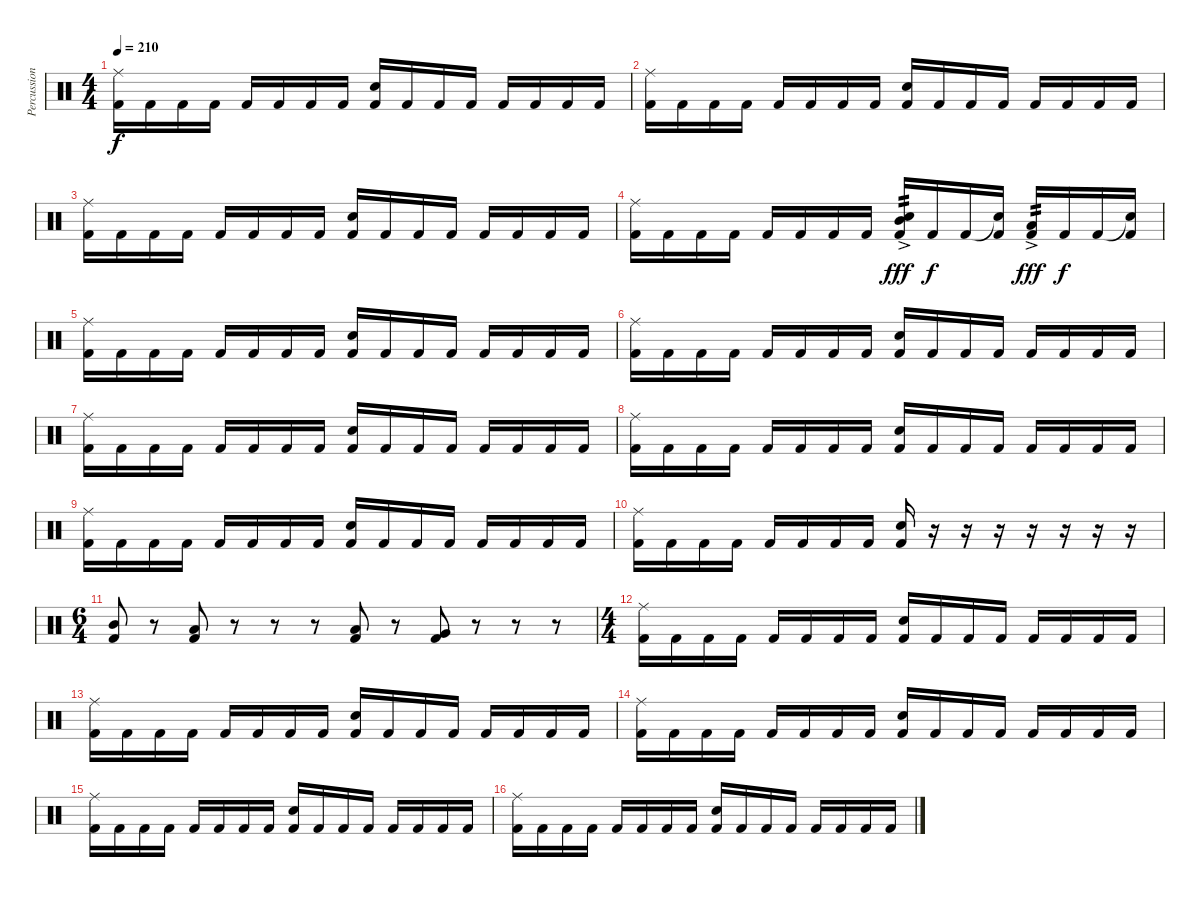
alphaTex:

\track ("Percussions" "Percussion") {instrument percussion}
\staff {score}
\articulation defaults
\ts (4 4)
\tempo 210
\clef neutral
\ks c
("Ride (middle)" "Kick (hit) 2").16{dy f} "Kick (hit) 2".16 "Kick (hit) 2".16 "Kick (hit) 2".16 "Kick (hit) 2".16 "Kick (hit) 2".16 "Kick (hit) 2".16 "Kick (hit) 2".16 ("Snare (hit) 2" "Kick (hit) 2").16 "Kick (hit) 2".16 "Kick (hit) 2".16 "Kick (hit) 2".16 "Kick (hit) 2".16 "Kick (hit) 2".16 "Kick (hit) 2".16 "Kick (hit) 2".16 |
("Ride (middle)" "Kick (hit) 2").16 "Kick (hit) 2".16 "Kick (hit) 2".16 "Kick (hit) 2".16 "Kick (hit) 2".16 "Kick (hit) 2".16 "Kick (hit) 2".16 "Kick (hit) 2".16 ("Snare (hit) 2" "Kick (hit) 2").16 "Kick (hit) 2".16 "Kick (hit) 2".16 "Kick (hit) 2".16 "Kick (hit) 2".16 "Kick (hit) 2".16 "Kick (hit) 2".16 "Kick (hit) 2".16 |
("Ride (middle)" "Kick (hit) 2").16 "Kick (hit) 2".16 "Kick (hit) 2".16 "Kick (hit) 2".16 "Kick (hit) 2".16 "Kick (hit) 2".16 "Kick (hit) 2".16 "Kick (hit) 2".16 ("Snare (hit) 2" "Kick (hit) 2").16 "Kick (hit) 2".16 "Kick (hit) 2".16 "Kick (hit) 2".16 "Kick (hit) 2".16 "Kick (hit) 2".16 "Kick (hit) 2".16 "Kick (hit) 2".16 |
("Ride (middle)" "Kick (hit) 2").16 "Kick (hit) 2".16 "Kick (hit) 2".16 "Kick (hit) 2".16 "Kick (hit) 2".16 "Kick (hit) 2".16 "Kick (hit) 2".16 "Kick (hit) 2".16 ("Mid Tom (hit)"{ac} "Snare (hit) 2" "Kick (hit) 2").16{tp 2 dy fff} "Kick (hit) 2".16{dy f} "Kick (hit) 2".16 ("Snare (hit)"{t} "Kick (hit) 2").16 ("Low Tom (hit)"{ac} "Kick (hit) 2").16{tp 2 dy fff} "Kick (hit) 2".16{dy f} "Kick (hit) 2".16 ("Snare (hit)"{t} "Kick (hit) 2").16 |
("Ride (middle)" "Kick (hit) 2").16 "Kick (hit) 2".16 "Kick (hit) 2".16 "Kick (hit) 2".16 "Kick (hit) 2".16 "Kick (hit) 2".16 "Kick (hit) 2".16 "Kick (hit) 2".16 ("Snare (hit) 2" "Kick (hit) 2").16 "Kick (hit) 2".16 "Kick (hit) 2".16 "Kick (hit) 2".16 "Kick (hit) 2".16 "Kick (hit) 2".16 "Kick (hit) 2".16 "Kick (hit) 2".16 |
("Ride (middle)" "Kick (hit) 2").16 "Kick (hit) 2".16 "Kick (hit) 2".16 "Kick (hit) 2".16 "Kick (hit) 2".16 "Kick (hit) 2".16 "Kick (hit) 2".16 "Kick (hit) 2".16 ("Snare (hit) 2" "Kick (hit) 2").16 "Kick (hit) 2".16 "Kick (hit) 2".16 "Kick (hit) 2".16 "Kick (hit) 2".16 "Kick (hit) 2".16 "Kick (hit) 2".16 "Kick (hit) 2".16 |
("Ride (middle)" "Kick (hit) 2").16 "Kick (hit) 2".16 "Kick (hit) 2".16 "Kick (hit) 2".16 "Kick (hit) 2".16 "Kick (hit) 2".16 "Kick (hit) 2".16 "Kick (hit) 2".16 ("Snare (hit) 2" "Kick (hit) 2").16 "Kick (hit) 2".16 "Kick (hit) 2".16 "Kick (hit) 2".16 "Kick (hit) 2".16 "Kick (hit) 2".16 "Kick (hit) 2".16 "Kick (hit) 2".16 |
("Ride (middle)" "Kick (hit) 2").16 "Kick (hit) 2".16 "Kick (hit) 2".16 "Kick (hit) 2".16 "Kick (hit) 2".16 "Kick (hit) 2".16 "Kick (hit) 2".16 "Kick (hit) 2".16 ("Snare (hit) 2" "Kick (hit) 2").16 "Kick (hit) 2".16 "Kick (hit) 2".16 "Kick (hit) 2".16 "Kick (hit) 2".16 "Kick (hit) 2".16 "Kick (hit) 2".16 "Kick (hit) 2".16 |
("Ride (middle)" "Kick (hit) 2").16 "Kick (hit) 2".16 "Kick (hit) 2".16 "Kick (hit) 2".16 "Kick (hit) 2".16 "Kick (hit) 2".16 "Kick (hit) 2".16 "Kick (hit) 2".16 ("Snare (hit) 2" "Kick (hit) 2").16 "Kick (hit) 2".16 "Kick (hit) 2".16 "Kick (hit) 2".16 "Kick (hit) 2".16 "Kick (hit) 2".16 "Kick (hit) 2".16 "Kick (hit) 2".16 |
("Ride (middle)" "Kick (hit) 2").16 "Kick (hit) 2".16 "Kick (hit) 2".16 "Kick (hit) 2".16 "Kick (hit) 2".16 "Kick (hit) 2".16 "Kick (hit) 2".16 "Kick (hit) 2".16 ("Snare (hit) 2" "Kick (hit) 2").16 r.16 r.16 r.16 r.16 r.16 r.16 r.16 |
\ts (6 4)
("Mid Tom (hit)" "Kick (hit) 2").8 r.8 ("Low Tom (hit)" "Kick (hit) 2").8 r.8 r.8 r.8 ("Low Tom (hit)" "Kick (hit) 2").8 r.8 ("Very Low Tom (hit)" "Kick (hit) 2").8 r.8 r.8 r.8 |
\ts (4 4)
("Ride (middle)" "Kick (hit) 2").16 "Kick (hit) 2".16 "Kick (hit) 2".16 "Kick (hit) 2".16 "Kick (hit) 2".16 "Kick (hit) 2".16 "Kick (hit) 2".16 "Kick (hit) 2".16 ("Snare (hit) 2" "Kick (hit) 2").16 "Kick (hit) 2".16 "Kick (hit) 2".16 "Kick (hit) 2".16 "Kick (hit) 2".16 "Kick (hit) 2".16 "Kick (hit) 2".16 "Kick (hit) 2".16 |
("Ride (middle)" "Kick (hit) 2").16 "Kick (hit) 2".16 "Kick (hit) 2".16 "Kick (hit) 2".16 "Kick (hit) 2".16 "Kick (hit) 2".16 "Kick (hit) 2".16 "Kick (hit) 2".16 ("Snare (hit) 2" "Kick (hit) 2").16 "Kick (hit) 2".16 "Kick (hit) 2".16 "Kick (hit) 2".16 "Kick (hit) 2".16 "Kick (hit) 2".16 "Kick (hit) 2".16 "Kick (hit) 2".16 |
("Ride (middle)" "Kick (hit) 2").16 "Kick (hit) 2".16 "Kick (hit) 2".16 "Kick (hit) 2".16 "Kick (hit) 2".16 "Kick (hit) 2".16 "Kick (hit) 2".16 "Kick (hit) 2".16 ("Snare (hit) 2" "Kick (hit) 2").16 "Kick (hit) 2".16 "Kick (hit) 2".16 "Kick (hit) 2".16 "Kick (hit) 2".16 "Kick (hit) 2".16 "Kick (hit) 2".16 "Kick (hit) 2".16 |
("Ride (middle)" "Kick (hit) 2").16 "Kick (hit) 2".16 "Kick (hit) 2".16 "Kick (hit) 2".16 "Kick (hit) 2".16 "Kick (hit) 2".16 "Kick (hit) 2".16 "Kick (hit) 2".16 ("Snare (hit) 2" "Kick (hit) 2").16 "Kick (hit) 2".16 "Kick (hit) 2".16 "Kick (hit) 2".16 "Kick (hit) 2".16 "Kick (hit) 2".16 "Kick (hit) 2".16 "Kick (hit) 2".16 |
("Ride (middle)" "Kick (hit) 2").16 "Kick (hit) 2".16 "Kick (hit) 2".16 "Kick (hit) 2".16 "Kick (hit) 2".16 "Kick (hit) 2".16 "Kick (hit) 2".16 "Kick (hit) 2".16 ("Snare (hit) 2" "Kick (hit) 2").16 "Kick (hit) 2".16 "Kick (hit) 2".16 "Kick (hit) 2".16 "Kick (hit) 2".16 "Kick (hit) 2".16 "Kick (hit) 2".16 "Kick (hit) 2".16
